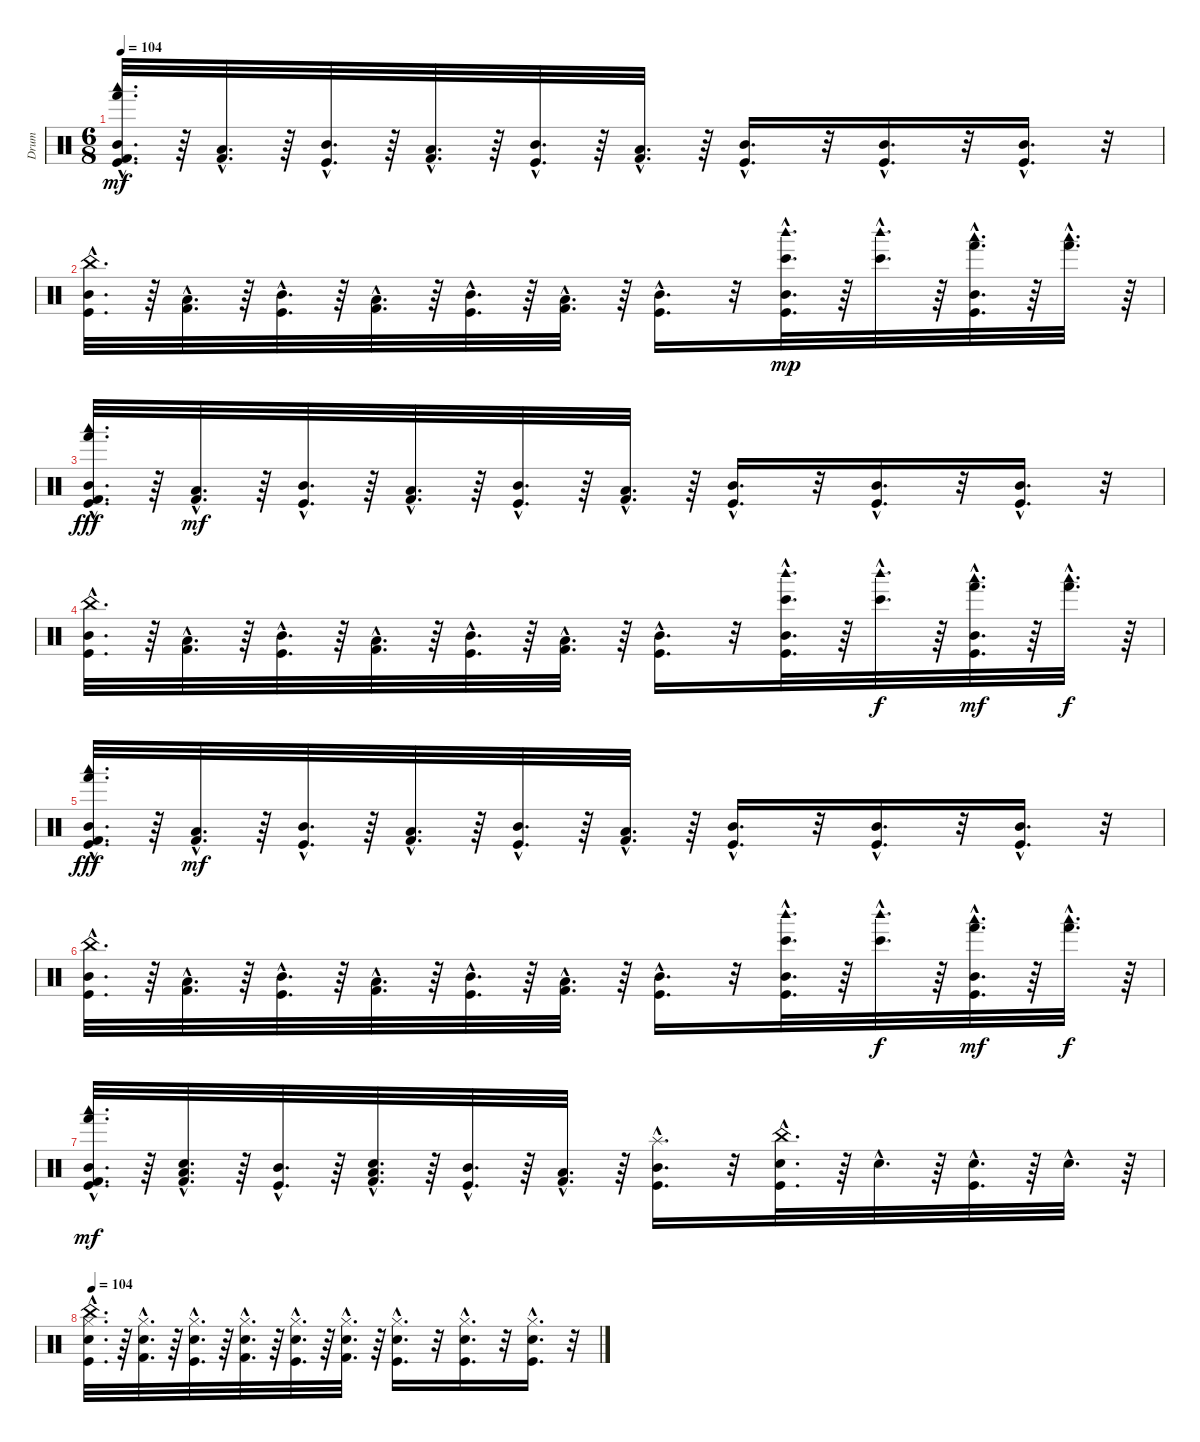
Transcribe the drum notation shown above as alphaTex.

\track ("Drum" "Drum") {instrument percussion}
\staff {score}
\articulation defaults
\ts (6 8)
\tempo 104
\clef neutral
\ks c
("Kick (hit) 2"{hac} "Hand (hit)"{hac} "Woodblock low (hit)"{hac} "Mid Tom (hit)"{hac} "Kick (hit)"{hac}).32{d dy mf} r.64 ("Low Tom (hit)"{hac} "Kick (hit) 2"{hac}).32{d} r.64 ("Mid Tom (hit)"{hac} "Kick (hit)"{hac}).32{d} r.64 ("Low Tom (hit)"{hac} "Kick (hit) 2"{hac}).32{d} r.64 ("Mid Tom (hit)"{hac} "Kick (hit)"{hac}).32{d} r.64 ("Low Tom (hit)"{hac} "Kick (hit) 2"{hac}).32{d} r.64 ("Mid Tom (hit)"{hac} "Kick (hit)"{hac}).16{d} r.32 ("Mid Tom (hit)"{hac} "Kick (hit)"{hac}).16{d} r.32 ("Mid Tom (hit)"{hac} "Kick (hit)"{hac}).16{d} r.32 |
("Mid Tom (hit)"{hac} "China (hit)"{hac} "Kick (hit)"{hac}).32{d} r.64 ("Low Tom (hit)"{hac} "Kick (hit) 2"{hac}).32{d} r.64 ("Mid Tom (hit)"{hac} "Kick (hit)"{hac}).32{d} r.64 ("Low Tom (hit)"{hac} "Kick (hit) 2"{hac}).32{d} r.64 ("Mid Tom (hit)"{hac} "Kick (hit)"{hac}).32{d} r.64 ("Low Tom (hit)"{hac} "Kick (hit) 2"{hac}).32{d} r.64 ("Kick (hit)"{hac} "Mid Tom (hit)"{hac}).16{d} r.32 ("Mid Tom (hit)"{hac} "Kick (hit)"{hac} "Bongo High (hit)"{hac} "Woodblock high (hit)"{hac}).32{d dy mp} r.64 ("Bongo High (hit)"{hac} "Woodblock high (hit)"{hac}).32{d} r.64 ("Mid Tom (hit)"{hac} "Kick (hit)"{hac} "Hand (hit)"{hac} "Woodblock low (hit)"{hac}).32{d} r.64 ("Hand (hit)"{hac} "Woodblock low (hit)"{hac}).32{d} r.64 |
("Kick (hit)"{hac} "Mid Tom (hit)"{hac} "Woodblock low (hit)"{hac} "Hand (hit)"{hac} "Kick (hit) 2"{hac}).32{d dy fff} r.64 ("Kick (hit) 2"{hac} "Low Tom (hit)"{hac}).32{d dy mf} r.64 ("Kick (hit)"{hac} "Mid Tom (hit)"{hac}).32{d} r.64 ("Kick (hit) 2"{hac} "Low Tom (hit)"{hac}).32{d} r.64 ("Kick (hit)"{hac} "Mid Tom (hit)"{hac}).32{d} r.64 ("Kick (hit) 2"{hac} "Low Tom (hit)"{hac}).32{d} r.64 ("Kick (hit)"{hac} "Mid Tom (hit)"{hac}).16{d} r.32 ("Kick (hit)"{hac} "Mid Tom (hit)"{hac}).16{d} r.32 ("Kick (hit)"{hac} "Mid Tom (hit)"{hac}).16{d} r.32 |
("Mid Tom (hit)"{hac} "China (hit)"{hac} "Kick (hit)"{hac}).32{d} r.64 ("Low Tom (hit)"{hac} "Kick (hit) 2"{hac}).32{d} r.64 ("Mid Tom (hit)"{hac} "Kick (hit)"{hac}).32{d} r.64 ("Low Tom (hit)"{hac} "Kick (hit) 2"{hac}).32{d} r.64 ("Mid Tom (hit)"{hac} "Kick (hit)"{hac}).32{d} r.64 ("Low Tom (hit)"{hac} "Kick (hit) 2"{hac}).32{d} r.64 ("Kick (hit)"{hac} "Mid Tom (hit)"{hac}).16{d} r.32 ("Mid Tom (hit)"{hac} "Kick (hit)"{hac} "Bongo High (hit)"{hac} "Woodblock high (hit)"{hac}).32{d} r.64 ("Bongo High (hit)"{hac} "Woodblock high (hit)"{hac}).32{d dy f} r.64 ("Mid Tom (hit)"{hac} "Kick (hit)"{hac} "Hand (hit)"{hac} "Woodblock low (hit)"{hac}).32{d dy mf} r.64 ("Hand (hit)"{hac} "Woodblock low (hit)"{hac}).32{d dy f} r.64 |
("Kick (hit)"{hac} "Mid Tom (hit)"{hac} "Woodblock low (hit)"{hac} "Hand (hit)"{hac} "Kick (hit) 2"{hac}).32{d dy fff} r.64 ("Kick (hit) 2"{hac} "Low Tom (hit)"{hac}).32{d dy mf} r.64 ("Kick (hit)"{hac} "Mid Tom (hit)"{hac}).32{d} r.64 ("Kick (hit) 2"{hac} "Low Tom (hit)"{hac}).32{d} r.64 ("Kick (hit)"{hac} "Mid Tom (hit)"{hac}).32{d} r.64 ("Kick (hit) 2"{hac} "Low Tom (hit)"{hac}).32{d} r.64 ("Kick (hit)"{hac} "Mid Tom (hit)"{hac}).16{d} r.32 ("Kick (hit)"{hac} "Mid Tom (hit)"{hac}).16{d} r.32 ("Kick (hit)"{hac} "Mid Tom (hit)"{hac}).16{d} r.32 |
("Kick (hit)"{hac} "China (hit)"{hac} "Mid Tom (hit)"{hac}).32{d} r.64 ("Kick (hit) 2"{hac} "Low Tom (hit)"{hac}).32{d} r.64 ("Kick (hit)"{hac} "Mid Tom (hit)"{hac}).32{d} r.64 ("Kick (hit) 2"{hac} "Low Tom (hit)"{hac}).32{d} r.64 ("Kick (hit)"{hac} "Mid Tom (hit)"{hac}).32{d} r.64 ("Kick (hit) 2"{hac} "Low Tom (hit)"{hac}).32{d} r.64 ("Mid Tom (hit)"{hac} "Kick (hit)"{hac}).16{d} r.32 ("Woodblock high (hit)"{hac} "Bongo High (hit)"{hac} "Kick (hit)"{hac} "Mid Tom (hit)"{hac}).32{d} r.64 ("Woodblock high (hit)"{hac} "Bongo High (hit)"{hac}).32{d dy f} r.64 ("Woodblock low (hit)"{hac} "Hand (hit)"{hac} "Kick (hit)"{hac} "Mid Tom (hit)"{hac}).32{d dy mf} r.64 ("Woodblock low (hit)"{hac} "Hand (hit)"{hac}).32{d dy f} r.64 |
("Woodblock low (hit)"{hac} "Hand (hit)"{hac} "Kick (hit) 2"{hac} "Mid Tom (hit)"{hac} "Kick (hit)"{hac}).32{d dy mf} r.64 ("Snare (hit) 2"{hac} "Low Tom (hit)"{hac} "Kick (hit) 2"{hac}).32{d} r.64 ("Mid Tom (hit)"{hac} "Kick (hit)"{hac}).32{d} r.64 ("Snare (hit) 2"{hac} "Low Tom (hit)"{hac} "Kick (hit) 2"{hac}).32{d} r.64 ("Mid Tom (hit)"{hac} "Kick (hit)"{hac}).32{d} r.64 ("Low Tom (hit)"{hac} "Kick (hit) 2"{hac}).32{d} r.64 ("Splash (hit)"{hac} "Mid Tom (hit)"{hac} "Kick (hit)"{hac}).16{d} r.32 ("China (hit)"{hac} "Kick (hit)"{hac} "Snare (hit) 2"{hac}).32{d} r.64 "Snare (hit) 2"{hac}.32{d} r.64 ("Kick (hit)"{hac} "Snare (hit) 2"{hac}).32{d} r.64 "Snare (hit) 2"{hac}.32{d} r.64 |
\tempo 104
("China (hit)"{hac} "Hi-Hat (closed)"{hac} "Snare (hit) 2"{hac} "Kick (hit)"{hac}).32{d} r.64 ("Hi-Hat (closed)"{hac} "Electric Snare (hit)"{hac} "Kick (hit) 2"{hac}).32{d} r.64 ("Hi-Hat (closed)"{hac} "Snare (hit) 2"{hac} "Kick (hit)"{hac}).32{d} r.64 ("Hi-Hat (closed)"{hac} "Electric Snare (hit)"{hac} "Kick (hit) 2"{hac}).32{d} r.64 ("Hi-Hat (closed)"{hac} "Snare (hit) 2"{hac} "Kick (hit)"{hac}).32{d} r.64 ("Hi-Hat (closed)"{hac} "Electric Snare (hit)"{hac} "Kick (hit) 2"{hac}).32{d} r.64 ("Hi-Hat (closed)"{hac} "Snare (hit) 2"{hac} "Kick (hit)"{hac}).16{d} r.32 ("Hi-Hat (closed)"{hac} "Snare (hit) 2"{hac} "Kick (hit)"{hac}).16{d} r.32 ("Hi-Hat (closed)"{hac} "Snare (hit) 2"{hac} "Kick (hit)"{hac}).16{d} r.32
